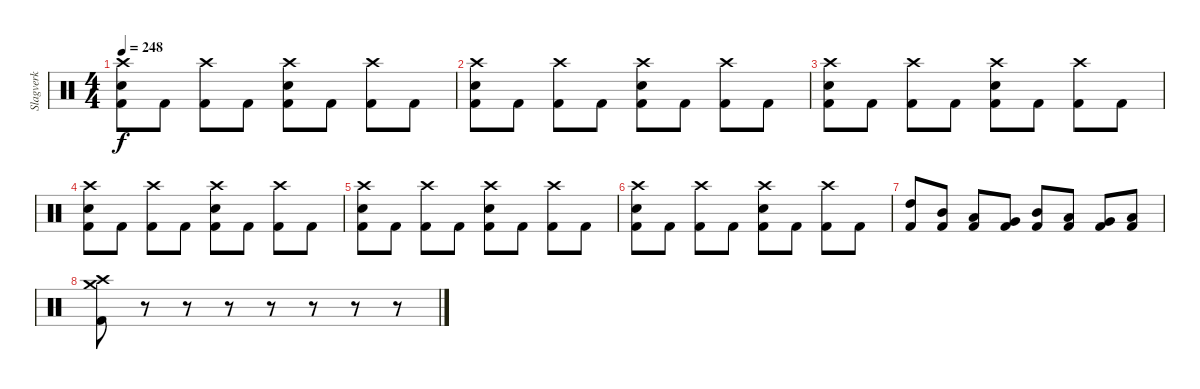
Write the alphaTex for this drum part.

\track ("Slagverk" "Slagverk") {instrument percussion}
\staff {score}
\articulation defaults
\ts (4 4)
\tempo 248
\clef neutral
\ks c
("Crash high (hit)" "Snare (hit) 2" "Kick (hit) 2").8{dy f} "Kick (hit) 2".8 ("Crash high (hit)" "Kick (hit) 2").8 "Kick (hit) 2".8 ("Crash high (hit)" "Snare (hit) 2" "Kick (hit) 2").8 "Kick (hit) 2".8 ("Crash high (hit)" "Kick (hit) 2").8 "Kick (hit) 2".8 |
("Crash high (hit)" "Snare (hit) 2" "Kick (hit) 2").8 "Kick (hit) 2".8 ("Crash high (hit)" "Kick (hit) 2").8 "Kick (hit) 2".8 ("Crash high (hit)" "Snare (hit) 2" "Kick (hit) 2").8 "Kick (hit) 2".8 ("Crash high (hit)" "Kick (hit) 2").8 "Kick (hit) 2".8 |
("Crash high (hit)" "Snare (hit) 2" "Kick (hit) 2").8 "Kick (hit) 2".8 ("Crash high (hit)" "Kick (hit) 2").8 "Kick (hit) 2".8 ("Crash high (hit)" "Snare (hit) 2" "Kick (hit) 2").8 "Kick (hit) 2".8 ("Crash high (hit)" "Kick (hit) 2").8 "Kick (hit) 2".8 |
("Crash high (hit)" "Snare (hit) 2" "Kick (hit) 2").8 "Kick (hit) 2".8 ("Crash high (hit)" "Kick (hit) 2").8 "Kick (hit) 2".8 ("Crash high (hit)" "Snare (hit) 2" "Kick (hit) 2").8 "Kick (hit) 2".8 ("Crash high (hit)" "Kick (hit) 2").8 "Kick (hit) 2".8 |
("Crash high (hit)" "Snare (hit) 2" "Kick (hit) 2").8 "Kick (hit) 2".8 ("Crash high (hit)" "Kick (hit) 2").8 "Kick (hit) 2".8 ("Crash high (hit)" "Snare (hit) 2" "Kick (hit) 2").8 "Kick (hit) 2".8 ("Crash high (hit)" "Kick (hit) 2").8 "Kick (hit) 2".8 |
("Crash high (hit)" "Snare (hit) 2" "Kick (hit) 2").8 "Kick (hit) 2".8 ("Crash high (hit)" "Kick (hit) 2").8 "Kick (hit) 2".8 ("Crash high (hit)" "Snare (hit) 2" "Kick (hit) 2").8 "Kick (hit) 2".8 ("Crash high (hit)" "Kick (hit) 2").8 "Kick (hit) 2".8 |
("High Tom (hit)" "Kick (hit) 2").8 ("Mid Tom (hit)" "Kick (hit) 2").8 ("Low Tom (hit)" "Kick (hit) 2").8 ("Very Low Tom (hit)" "Kick (hit) 2").8 ("Mid Tom (hit)" "Kick (hit) 2").8 ("Low Tom (hit)" "Kick (hit) 2").8 ("Very Low Tom (hit)" "Kick (hit) 2").8 ("Low Floor Tom (hit)" "Kick (hit) 2").8 |
("Crash medium (hit)" "Crash high (hit)" "Kick (hit) 2").8 r.8 r.8 r.8 r.8 r.8 r.8 r.8
